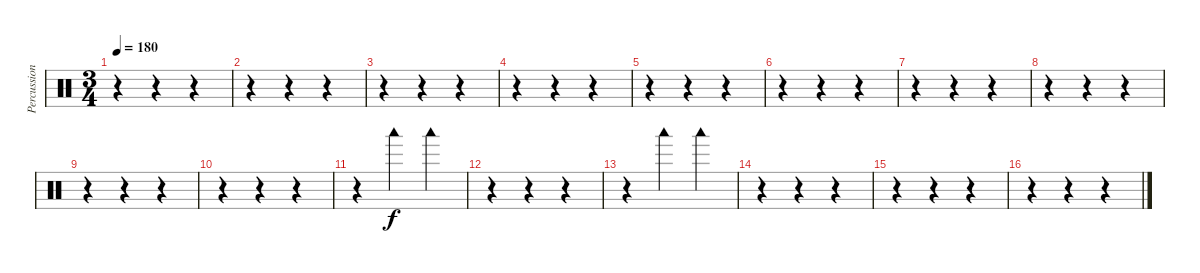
\track ("Percussions" "Percussion") {instrument percussion}
\staff {score}
\articulation defaults
\ts (3 4)
\tempo 180
\clef neutral
\ks c
r.4{dy f} r.4 r.4 |
r.4 r.4 r.4 |
r.4 r.4 r.4 |
r.4 r.4 r.4 |
r.4 r.4 r.4 |
r.4 r.4 r.4 |
r.4 r.4 r.4 |
r.4 r.4 r.4 |
r.4 r.4 r.4 |
r.4 r.4 r.4 |
r.4 "Woodblock low (hit)".4 "Woodblock low (hit)".4 |
r.4 r.4 r.4 |
r.4 "Woodblock low (hit)".4 "Woodblock low (hit)".4 |
r.4 r.4 r.4 |
r.4 r.4 r.4 |
r.4 r.4 r.4
